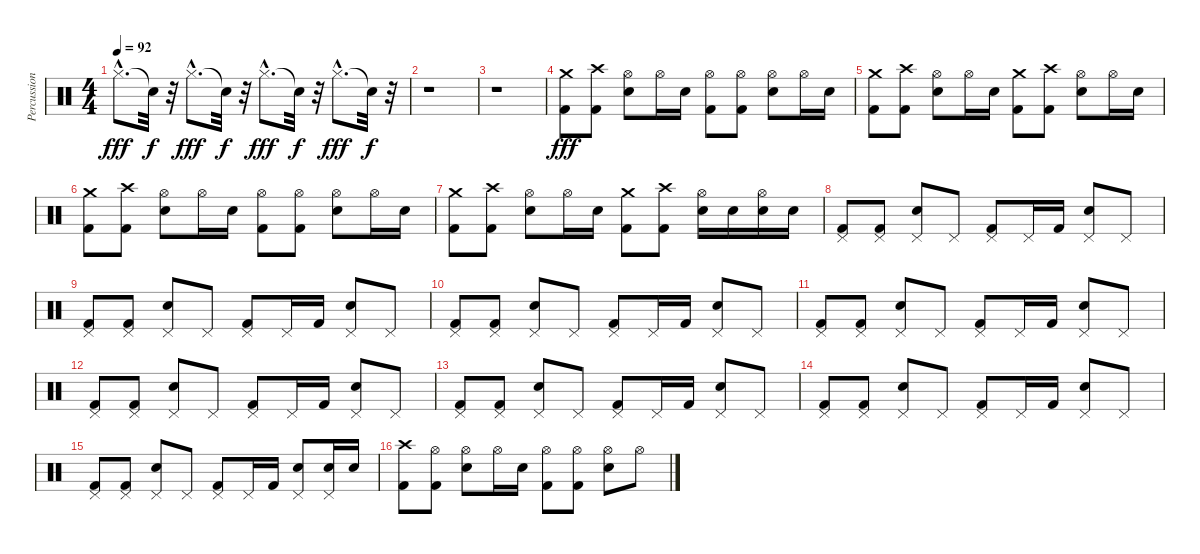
\track ("Percussions" "Percussion") {instrument percussion}
\staff {score}
\articulation defaults
\ts (4 4)
\tempo 92
\clef neutral
\ks c "Hi-Hat (closed)"{hac}.8{d dy fff} "Snare (hit)"{t}.32{dy f}
r.32 "Hi-Hat (closed)"{hac}.8{d dy fff} "Snare (hit)"{t}.32{dy f} r.32 "Hi-Hat (closed)"{hac}.8{d dy fff} "Snare (hit)"{t}.32{dy f} r.32 "Hi-Hat (closed)"{hac}.8{d dy fff} "Snare (hit)"{t}.32{dy f} r.32 |
r.1 |
r.1 |
("Kick (hit) 2" "Crash medium (hit)").8{dy fff} ("Kick (hit) 2" "Crash high (hit)").8 ("Snare (hit) 2" "Hi-Hat (open)").8 "Hi-Hat (open)".16 "Snare (hit) 2".16 ("Kick (hit) 2" "Hi-Hat (open)").8 ("Kick (hit) 2" "Hi-Hat (open)").8 ("Snare (hit) 2" "Hi-Hat (open)").8 "Hi-Hat (open)".16 "Snare (hit) 2".16 |
("Kick (hit) 2" "Crash medium (hit)").8 ("Kick (hit) 2" "Crash high (hit)").8 ("Snare (hit) 2" "Hi-Hat (open)").8 "Hi-Hat (open)".16 "Snare (hit) 2".16 ("Kick (hit) 2" "Crash medium (hit)").8 ("Kick (hit) 2" "Crash high (hit)").8 ("Snare (hit) 2" "Hi-Hat (open)").8 "Hi-Hat (open)".16 "Snare (hit) 2".16 |
("Kick (hit) 2" "Crash medium (hit)").8 ("Kick (hit) 2" "Crash high (hit)").8 ("Snare (hit) 2" "Hi-Hat (open)").8 "Hi-Hat (open)".16 "Snare (hit) 2".16 ("Kick (hit) 2" "Hi-Hat (open)").8 ("Kick (hit) 2" "Hi-Hat (open)").8 ("Snare (hit) 2" "Hi-Hat (open)").8 "Hi-Hat (open)".16 "Snare (hit) 2".16 |
("Kick (hit) 2" "Crash medium (hit)").8 ("Kick (hit) 2" "Crash high (hit)").8 ("Snare (hit) 2" "Hi-Hat (open)").8 "Hi-Hat (open)".16 "Snare (hit) 2".16 ("Kick (hit) 2" "Crash medium (hit)").8 ("Kick (hit) 2" "Crash high (hit)").8 ("Snare (hit) 2" "Hi-Hat (open)").16 "Snare (hit) 2".16 ("Snare (hit) 2" "Hi-Hat (open)").16 "Snare (hit) 2".16 |
("Kick (hit) 2" "Pedal Hi-Hat (hit)").8 ("Kick (hit) 2" "Pedal Hi-Hat (hit)").8 ("Snare (hit) 2" "Pedal Hi-Hat (hit)").8 "Pedal Hi-Hat (hit)".8 ("Kick (hit) 2" "Pedal Hi-Hat (hit)").8 "Pedal Hi-Hat (hit)".16 "Kick (hit) 2".16 ("Snare (hit) 2" "Pedal Hi-Hat (hit)").8 "Pedal Hi-Hat (hit)".8 |
("Kick (hit) 2" "Pedal Hi-Hat (hit)").8 ("Kick (hit) 2" "Pedal Hi-Hat (hit)").8 ("Snare (hit) 2" "Pedal Hi-Hat (hit)").8 "Pedal Hi-Hat (hit)".8 ("Kick (hit) 2" "Pedal Hi-Hat (hit)").8 "Pedal Hi-Hat (hit)".16 "Kick (hit) 2".16 ("Snare (hit) 2" "Pedal Hi-Hat (hit)").8 "Pedal Hi-Hat (hit)".8 |
("Kick (hit) 2" "Pedal Hi-Hat (hit)").8 ("Kick (hit) 2" "Pedal Hi-Hat (hit)").8 ("Snare (hit) 2" "Pedal Hi-Hat (hit)").8 "Pedal Hi-Hat (hit)".8 ("Kick (hit) 2" "Pedal Hi-Hat (hit)").8 "Pedal Hi-Hat (hit)".16 "Kick (hit) 2".16 ("Snare (hit) 2" "Pedal Hi-Hat (hit)").8 "Pedal Hi-Hat (hit)".8 |
("Kick (hit) 2" "Pedal Hi-Hat (hit)").8 ("Kick (hit) 2" "Pedal Hi-Hat (hit)").8 ("Snare (hit) 2" "Pedal Hi-Hat (hit)").8 "Pedal Hi-Hat (hit)".8 ("Kick (hit) 2" "Pedal Hi-Hat (hit)").8 "Pedal Hi-Hat (hit)".16 "Kick (hit) 2".16 ("Snare (hit) 2" "Pedal Hi-Hat (hit)").8 "Pedal Hi-Hat (hit)".8 |
("Kick (hit) 2" "Pedal Hi-Hat (hit)").8 ("Kick (hit) 2" "Pedal Hi-Hat (hit)").8 ("Snare (hit) 2" "Pedal Hi-Hat (hit)").8 "Pedal Hi-Hat (hit)".8 ("Kick (hit) 2" "Pedal Hi-Hat (hit)").8 "Pedal Hi-Hat (hit)".16 "Kick (hit) 2".16 ("Snare (hit) 2" "Pedal Hi-Hat (hit)").8 "Pedal Hi-Hat (hit)".8 |
("Kick (hit) 2" "Pedal Hi-Hat (hit)").8 ("Kick (hit) 2" "Pedal Hi-Hat (hit)").8 ("Snare (hit) 2" "Pedal Hi-Hat (hit)").8 "Pedal Hi-Hat (hit)".8 ("Kick (hit) 2" "Pedal Hi-Hat (hit)").8 "Pedal Hi-Hat (hit)".16 "Kick (hit) 2".16 ("Snare (hit) 2" "Pedal Hi-Hat (hit)").8 "Pedal Hi-Hat (hit)".8 |
("Kick (hit) 2" "Pedal Hi-Hat (hit)").8 ("Kick (hit) 2" "Pedal Hi-Hat (hit)").8 ("Snare (hit) 2" "Pedal Hi-Hat (hit)").8 "Pedal Hi-Hat (hit)".8 ("Kick (hit) 2" "Pedal Hi-Hat (hit)").8 "Pedal Hi-Hat (hit)".16 "Kick (hit) 2".16 ("Snare (hit) 2" "Pedal Hi-Hat (hit)").8 "Pedal Hi-Hat (hit)".8 |
("Kick (hit) 2" "Pedal Hi-Hat (hit)").8 ("Kick (hit) 2" "Pedal Hi-Hat (hit)").8 ("Snare (hit) 2" "Pedal Hi-Hat (hit)").8 "Pedal Hi-Hat (hit)".8 ("Kick (hit) 2" "Pedal Hi-Hat (hit)").8 "Pedal Hi-Hat (hit)".16 "Kick (hit) 2".16 ("Snare (hit) 2" "Pedal Hi-Hat (hit)").8 ("Snare (hit) 2" "Pedal Hi-Hat (hit)").16 "Snare (hit) 2".16 |
("Kick (hit) 2" "Crash high (hit)").8 ("Kick (hit) 2" "Hi-Hat (open)").8 ("Snare (hit) 2" "Hi-Hat (open)").8 "Hi-Hat (open)".16 "Snare (hit) 2".16 ("Kick (hit) 2" "Hi-Hat (open)").8 ("Kick (hit) 2" "Hi-Hat (open)").8 ("Snare (hit) 2" "Hi-Hat (open)").8 "Hi-Hat (open)".8
